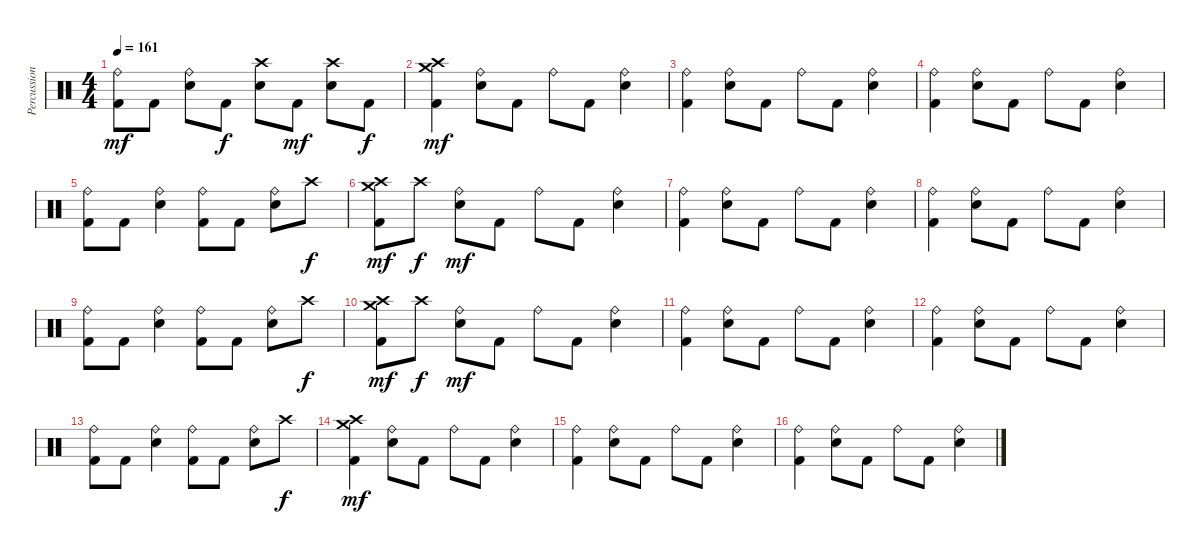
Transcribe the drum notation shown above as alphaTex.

\track ("Percussion" "Percussion") {instrument percussion}
\staff {score}
\articulation defaults
\ts (4 4)
\tempo 161
\clef neutral
\ks c
("Ride (bell)" "Kick (hit) 2").8{dy mf} "Kick (hit) 2".8 ("Ride (bell)" "Electric Snare (hit)").8 "Kick (hit) 2".8{dy f} ("Crash high (hit)" "Electric Snare (hit)").8 "Kick (hit) 2".8{dy mf} ("Crash high (hit)" "Electric Snare (hit)").8 "Kick (hit) 2".8{dy f} |
("Crash medium (hit)" "Crash high (hit)" "Kick (hit) 2").4{dy mf} ("Ride (bell)" "Electric Snare (hit)").8 "Kick (hit) 2".8 "Ride (bell)".8 "Kick (hit) 2".8 ("Ride (bell)" "Electric Snare (hit)").4 |
("Ride (bell)" "Kick (hit) 2").4 ("Ride (bell)" "Electric Snare (hit)").8 "Kick (hit) 2".8 "Ride (bell)".8 "Kick (hit) 2".8 ("Ride (bell)" "Electric Snare (hit)").4 |
("Ride (bell)" "Kick (hit) 2").4 ("Ride (bell)" "Electric Snare (hit)").8 "Kick (hit) 2".8 "Ride (bell)".8 "Kick (hit) 2".8 ("Ride (bell)" "Electric Snare (hit)").4 |
("Ride (bell)" "Kick (hit) 2").8 "Kick (hit) 2".8 ("Ride (bell)" "Electric Snare (hit)").4 ("Ride (bell)" "Kick (hit) 2").8 "Kick (hit) 2".8 ("Ride (bell)" "Electric Snare (hit)").8 "Crash high (hit)".8{dy f} |
("Crash medium (hit)" "Crash high (hit)" "Kick (hit) 2").8{dy mf} "Crash high (hit)".8{dy f} ("Ride (bell)" "Electric Snare (hit)").8{dy mf} "Kick (hit) 2".8 "Ride (bell)".8 "Kick (hit) 2".8 ("Ride (bell)" "Electric Snare (hit)").4 |
("Ride (bell)" "Kick (hit) 2").4 ("Ride (bell)" "Electric Snare (hit)").8 "Kick (hit) 2".8 "Ride (bell)".8 "Kick (hit) 2".8 ("Ride (bell)" "Electric Snare (hit)").4 |
("Ride (bell)" "Kick (hit) 2").4 ("Ride (bell)" "Electric Snare (hit)").8 "Kick (hit) 2".8 "Ride (bell)".8 "Kick (hit) 2".8 ("Ride (bell)" "Electric Snare (hit)").4 |
("Ride (bell)" "Kick (hit) 2").8 "Kick (hit) 2".8 ("Ride (bell)" "Electric Snare (hit)").4 ("Ride (bell)" "Kick (hit) 2").8 "Kick (hit) 2".8 ("Ride (bell)" "Electric Snare (hit)").8 "Crash high (hit)".8{dy f} |
("Crash medium (hit)" "Crash high (hit)" "Kick (hit) 2").8{dy mf} "Crash high (hit)".8{dy f} ("Ride (bell)" "Electric Snare (hit)").8{dy mf} "Kick (hit) 2".8 "Ride (bell)".8 "Kick (hit) 2".8 ("Ride (bell)" "Electric Snare (hit)").4 |
("Ride (bell)" "Kick (hit) 2").4 ("Ride (bell)" "Electric Snare (hit)").8 "Kick (hit) 2".8 "Ride (bell)".8 "Kick (hit) 2".8 ("Ride (bell)" "Electric Snare (hit)").4 |
("Ride (bell)" "Kick (hit) 2").4 ("Ride (bell)" "Electric Snare (hit)").8 "Kick (hit) 2".8 "Ride (bell)".8 "Kick (hit) 2".8 ("Ride (bell)" "Electric Snare (hit)").4 |
("Ride (bell)" "Kick (hit) 2").8 "Kick (hit) 2".8 ("Ride (bell)" "Electric Snare (hit)").4 ("Ride (bell)" "Kick (hit) 2").8 "Kick (hit) 2".8 ("Ride (bell)" "Electric Snare (hit)").8 "Crash high (hit)".8{dy f} |
("Crash medium (hit)" "Crash high (hit)" "Kick (hit) 2").4{dy mf} ("Ride (bell)" "Electric Snare (hit)").8 "Kick (hit) 2".8 "Ride (bell)".8 "Kick (hit) 2".8 ("Ride (bell)" "Electric Snare (hit)").4 |
("Ride (bell)" "Kick (hit) 2").4 ("Ride (bell)" "Electric Snare (hit)").8 "Kick (hit) 2".8 "Ride (bell)".8 "Kick (hit) 2".8 ("Ride (bell)" "Electric Snare (hit)").4 |
("Ride (bell)" "Kick (hit) 2").4 ("Ride (bell)" "Electric Snare (hit)").8 "Kick (hit) 2".8 "Ride (bell)".8 "Kick (hit) 2".8 ("Ride (bell)" "Electric Snare (hit)").4
